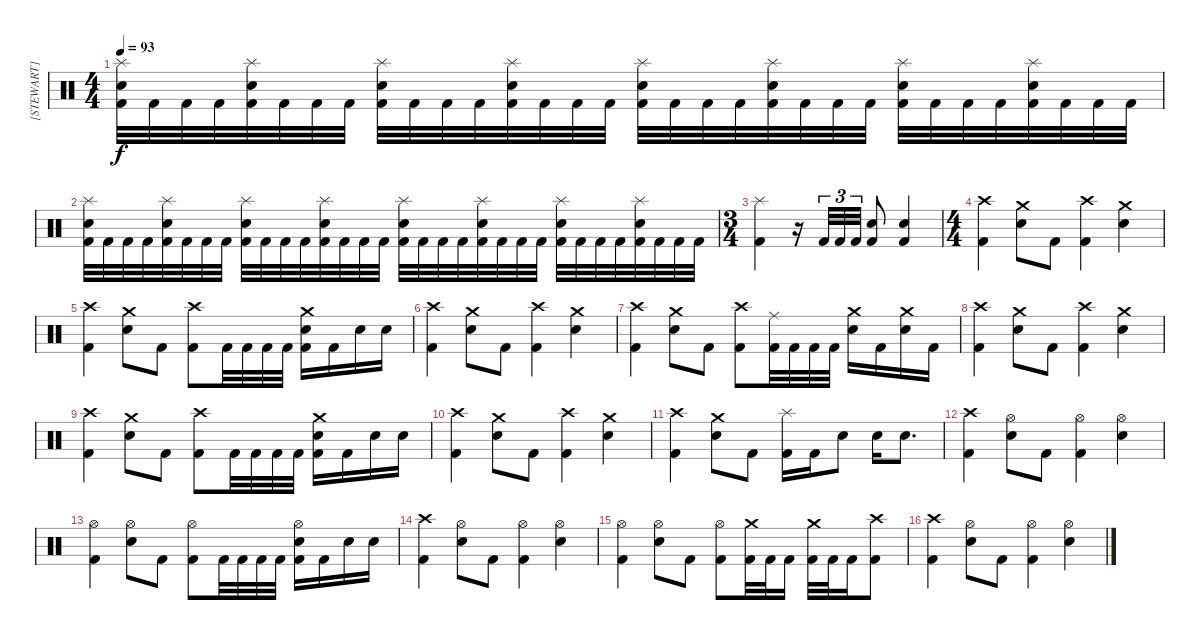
\track ("[STEWART]" "[STEWART]") {instrument percussion}
\staff {score}
\articulation defaults
\ts (4 4)
\tempo 93
\clef neutral
\ks c
("Splash (hit)" "Electric Snare (hit)" "Kick (hit) 2").32{dy f} "Kick (hit) 2".32 "Kick (hit) 2".32 "Kick (hit) 2".32 ("Splash (hit)" "Electric Snare (hit)" "Kick (hit) 2").32 "Kick (hit) 2".32 "Kick (hit) 2".32 "Kick (hit) 2".32 ("Splash (hit)" "Electric Snare (hit)" "Kick (hit) 2").32 "Kick (hit) 2".32 "Kick (hit) 2".32 "Kick (hit) 2".32 ("Splash (hit)" "Electric Snare (hit)" "Kick (hit) 2").32 "Kick (hit) 2".32 "Kick (hit) 2".32 "Kick (hit) 2".32 ("Splash (hit)" "Electric Snare (hit)" "Kick (hit) 2").32 "Kick (hit) 2".32 "Kick (hit) 2".32 "Kick (hit) 2".32 ("Splash (hit)" "Electric Snare (hit)" "Kick (hit) 2").32 "Kick (hit) 2".32 "Kick (hit) 2".32 "Kick (hit) 2".32 ("Splash (hit)" "Electric Snare (hit)" "Kick (hit) 2").32 "Kick (hit) 2".32 "Kick (hit) 2".32 "Kick (hit) 2".32 ("Splash (hit)" "Electric Snare (hit)" "Kick (hit) 2").32 "Kick (hit) 2".32 "Kick (hit) 2".32 "Kick (hit) 2".32 |
("Splash (hit)" "Electric Snare (hit)" "Kick (hit) 2").32 "Kick (hit) 2".32 "Kick (hit) 2".32 "Kick (hit) 2".32 ("Splash (hit)" "Electric Snare (hit)" "Kick (hit) 2").32 "Kick (hit) 2".32 "Kick (hit) 2".32 "Kick (hit) 2".32 ("Splash (hit)" "Electric Snare (hit)" "Kick (hit) 2").32 "Kick (hit) 2".32 "Kick (hit) 2".32 "Kick (hit) 2".32 ("Splash (hit)" "Electric Snare (hit)" "Kick (hit) 2").32 "Kick (hit) 2".32 "Kick (hit) 2".32 "Kick (hit) 2".32 ("Splash (hit)" "Electric Snare (hit)" "Kick (hit) 2").32 "Kick (hit) 2".32 "Kick (hit) 2".32 "Kick (hit) 2".32 ("Splash (hit)" "Electric Snare (hit)" "Kick (hit) 2").32 "Kick (hit) 2".32 "Kick (hit) 2".32 "Kick (hit) 2".32 ("Splash (hit)" "Electric Snare (hit)" "Kick (hit) 2").32 "Kick (hit) 2".32 "Kick (hit) 2".32 "Kick (hit) 2".32 ("Splash (hit)" "Electric Snare (hit)" "Kick (hit) 2").32 "Kick (hit) 2".32 "Kick (hit) 2".32 "Kick (hit) 2".32 |
\ts (3 4)
("Splash (hit)" "Kick (hit) 2").4 r.16 "Kick (hit) 2".32{tu (3 2)} "Kick (hit) 2".32{tu (3 2)} "Kick (hit) 2".32{tu (3 2)} ("Electric Snare (hit)" "Kick (hit) 2").8 ("Electric Snare (hit)" "Kick (hit) 2").4 |
\ts (4 4)
("Crash high (hit)" "Kick (hit) 2").4 ("Crash medium (hit)" "Electric Snare (hit)").8 "Kick (hit) 2".8 ("Crash high (hit)" "Kick (hit) 2").4 ("Crash medium (hit)" "Electric Snare (hit)").4 |
("Crash high (hit)" "Kick (hit) 2").4 ("Crash medium (hit)" "Electric Snare (hit)").8 "Kick (hit) 2".8 ("Crash high (hit)" "Kick (hit) 2").8 "Kick (hit) 2".32 "Kick (hit) 2".32 "Kick (hit) 2".32 "Kick (hit) 2".32 ("Crash medium (hit)" "Electric Snare (hit)" "Kick (hit) 2").16 "Kick (hit) 2".16 "Electric Snare (hit)".16 "Electric Snare (hit)".16 |
("Crash high (hit)" "Kick (hit) 2").4 ("Crash medium (hit)" "Electric Snare (hit)").8 "Kick (hit) 2".8 ("Crash high (hit)" "Kick (hit) 2").4 ("Crash medium (hit)" "Electric Snare (hit)").4 |
("Crash high (hit)" "Kick (hit) 2").4 ("Crash medium (hit)" "Electric Snare (hit)").8 "Kick (hit) 2".8 ("Crash high (hit)" "Kick (hit) 2").8 ("Ride (middle)" "Kick (hit) 2").32 "Kick (hit) 2".32 "Kick (hit) 2".32 "Kick (hit) 2".32 ("Crash medium (hit)" "Electric Snare (hit)").16 "Kick (hit) 2".16 ("Crash medium (hit)" "Electric Snare (hit)").16 "Kick (hit) 2".16 |
("Crash high (hit)" "Kick (hit) 2").4 ("Crash medium (hit)" "Electric Snare (hit)").8 "Kick (hit) 2".8 ("Crash high (hit)" "Kick (hit) 2").4 ("Crash medium (hit)" "Electric Snare (hit)").4 |
("Crash high (hit)" "Kick (hit) 2").4 ("Crash medium (hit)" "Electric Snare (hit)").8 "Kick (hit) 2".8 ("Crash high (hit)" "Kick (hit) 2").8 "Kick (hit) 2".32 "Kick (hit) 2".32 "Kick (hit) 2".32 "Kick (hit) 2".32 ("Crash medium (hit)" "Electric Snare (hit)" "Kick (hit) 2").16 "Kick (hit) 2".16 "Electric Snare (hit)".16 "Electric Snare (hit)".16 |
("Crash high (hit)" "Kick (hit) 2").4 ("Crash medium (hit)" "Electric Snare (hit)").8 "Kick (hit) 2".8 ("Crash high (hit)" "Kick (hit) 2").4 ("Crash medium (hit)" "Electric Snare (hit)").4 |
("Crash high (hit)" "Kick (hit) 2").4 ("Crash medium (hit)" "Electric Snare (hit)").8 "Kick (hit) 2".8 ("Splash (hit)" "Kick (hit) 2").16 "Kick (hit) 2".16 "Electric Snare (hit)".8 "Electric Snare (hit)".16 "Electric Snare (hit)".8{d} |
("Crash high (hit)" "Kick (hit) 2").4 ("Hi-Hat (open)" "Electric Snare (hit)").8 "Kick (hit) 2".8 ("Hi-Hat (open)" "Kick (hit) 2").4 ("Hi-Hat (open)" "Electric Snare (hit)").4 |
("Hi-Hat (open)" "Kick (hit) 2").4 ("Hi-Hat (open)" "Electric Snare (hit)").8 "Kick (hit) 2".8 ("Hi-Hat (open)" "Kick (hit) 2").8 "Kick (hit) 2".32 "Kick (hit) 2".32 "Kick (hit) 2".32 "Kick (hit) 2".32 ("Hi-Hat (open)" "Electric Snare (hit)" "Kick (hit) 2").16 "Kick (hit) 2".16 "Electric Snare (hit)".16 "Electric Snare (hit)".16 |
("Crash high (hit)" "Kick (hit) 2").4 ("Hi-Hat (open)" "Electric Snare (hit)").8 "Kick (hit) 2".8 ("Hi-Hat (open)" "Kick (hit) 2").4 ("Hi-Hat (open)" "Electric Snare (hit)").4 |
("Hi-Hat (open)" "Kick (hit) 2").4 ("Hi-Hat (open)" "Electric Snare (hit)").8 "Kick (hit) 2".8 ("Hi-Hat (open)" "Kick (hit) 2").8 ("Crash medium (hit)" "Kick (hit) 2").32 "Kick (hit) 2".32 "Kick (hit) 2".16 ("Crash medium (hit)" "Kick (hit) 2").32 "Kick (hit) 2".32 "Kick (hit) 2".16 ("Crash high (hit)" "Kick (hit) 2").8 |
("Crash high (hit)" "Kick (hit) 2").4 ("Hi-Hat (open)" "Electric Snare (hit)").8 "Kick (hit) 2".8 ("Hi-Hat (open)" "Kick (hit) 2").4 ("Hi-Hat (open)" "Electric Snare (hit)").4
